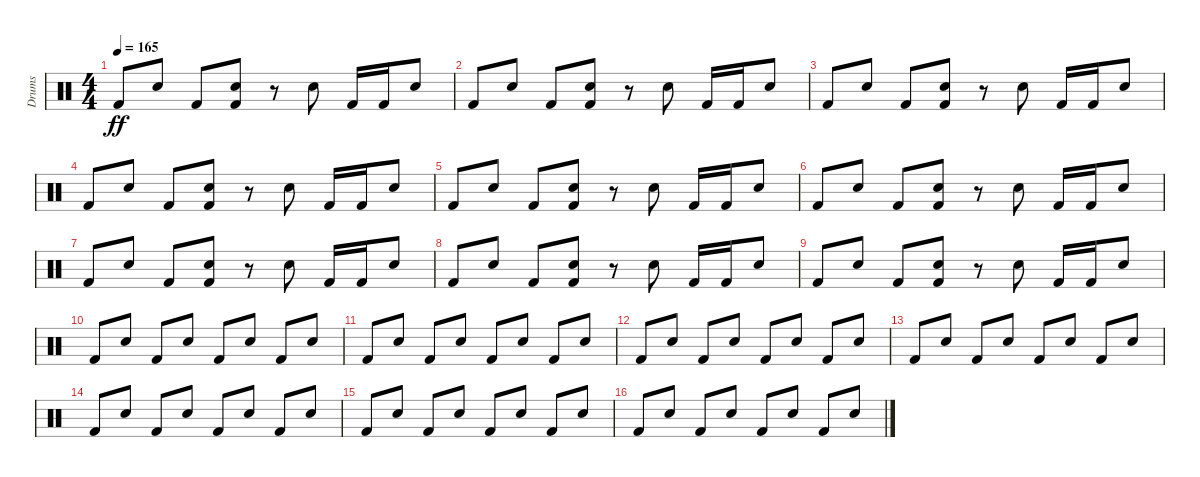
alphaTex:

\track ("Drums" "Drums") {instrument percussion}
\staff {score}
\articulation defaults
\ts (4 4)
\tempo 165
\clef neutral
\ks c "Kick (hit) 2".8{dy ff} "Snare (hit) 2".8 "Kick (hit) 2".8
("Kick (hit) 2" "Snare (hit) 2").8 r.8 "Snare (hit) 2".8 "Kick (hit) 2".16 "Kick (hit) 2".16 "Snare (hit) 2".8 |
"Kick (hit) 2".8 "Snare (hit) 2".8 "Kick (hit) 2".8 ("Kick (hit) 2" "Snare (hit) 2").8 r.8 "Snare (hit) 2".8 "Kick (hit) 2".16 "Kick (hit) 2".16 "Snare (hit) 2".8 |
"Kick (hit) 2".8 "Snare (hit) 2".8 "Kick (hit) 2".8 ("Snare (hit) 2" "Kick (hit) 2").8 r.8 "Snare (hit) 2".8 "Kick (hit) 2".16 "Kick (hit) 2".16 "Snare (hit) 2".8 |
"Kick (hit) 2".8 "Snare (hit) 2".8 "Kick (hit) 2".8 ("Kick (hit) 2" "Snare (hit) 2").8 r.8 "Snare (hit) 2".8 "Kick (hit) 2".16 "Kick (hit) 2".16 "Snare (hit) 2".8 |
"Kick (hit) 2".8 "Snare (hit) 2".8 "Kick (hit) 2".8 ("Snare (hit) 2" "Kick (hit) 2").8 r.8 "Snare (hit) 2".8 "Kick (hit) 2".16 "Kick (hit) 2".16 "Snare (hit) 2".8 |
"Kick (hit) 2".8 "Snare (hit) 2".8 "Kick (hit) 2".8 ("Kick (hit) 2" "Snare (hit) 2").8 r.8 "Snare (hit) 2".8 "Kick (hit) 2".16 "Kick (hit) 2".16 "Snare (hit) 2".8 |
"Kick (hit) 2".8 "Snare (hit) 2".8 "Kick (hit) 2".8 ("Snare (hit) 2" "Kick (hit) 2").8 r.8 "Snare (hit) 2".8 "Kick (hit) 2".16 "Kick (hit) 2".16 "Snare (hit) 2".8 |
"Kick (hit) 2".8 "Snare (hit) 2".8 "Kick (hit) 2".8 ("Kick (hit) 2" "Snare (hit) 2").8 r.8 "Snare (hit) 2".8 "Kick (hit) 2".16 "Kick (hit) 2".16 "Snare (hit) 2".8 |
"Kick (hit) 2".8 "Snare (hit) 2".8 "Kick (hit) 2".8 ("Snare (hit) 2" "Kick (hit) 2").8 r.8 "Snare (hit) 2".8 "Kick (hit) 2".16 "Kick (hit) 2".16 "Snare (hit) 2".8 |
"Kick (hit) 2".8 "Snare (hit) 2".8 "Kick (hit) 2".8 "Snare (hit) 2".8 "Kick (hit) 2".8 "Snare (hit) 2".8 "Kick (hit) 2".8 "Snare (hit) 2".8 |
"Kick (hit) 2".8 "Snare (hit) 2".8 "Kick (hit) 2".8 "Snare (hit) 2".8 "Kick (hit) 2".8 "Snare (hit) 2".8 "Kick (hit) 2".8 "Snare (hit) 2".8 |
"Kick (hit) 2".8 "Snare (hit) 2".8 "Kick (hit) 2".8 "Snare (hit) 2".8 "Kick (hit) 2".8 "Snare (hit) 2".8 "Kick (hit) 2".8 "Snare (hit) 2".8 |
"Kick (hit) 2".8 "Snare (hit) 2".8 "Kick (hit) 2".8 "Snare (hit) 2".8 "Kick (hit) 2".8 "Snare (hit) 2".8 "Kick (hit) 2".8 "Snare (hit) 2".8 |
"Kick (hit) 2".8 "Snare (hit) 2".8 "Kick (hit) 2".8 "Snare (hit) 2".8 "Kick (hit) 2".8 "Snare (hit) 2".8 "Kick (hit) 2".8 "Snare (hit) 2".8 |
"Kick (hit) 2".8 "Snare (hit) 2".8 "Kick (hit) 2".8 "Snare (hit) 2".8 "Kick (hit) 2".8 "Snare (hit) 2".8 "Kick (hit) 2".8 "Snare (hit) 2".8 |
"Kick (hit) 2".8 "Snare (hit) 2".8 "Kick (hit) 2".8 "Snare (hit) 2".8 "Kick (hit) 2".8 "Snare (hit) 2".8 "Kick (hit) 2".8 "Snare (hit) 2".8
